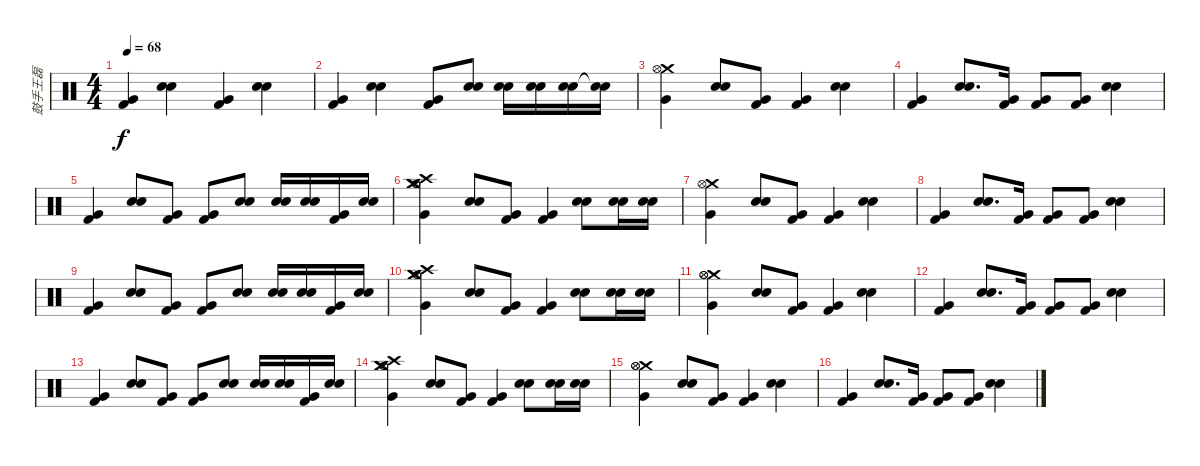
\track ("鼓手王磊" "鼓手王磊") {instrument percussion}
\staff {score}
\articulation defaults
\ts (4 4)
\tempo 68
\clef neutral
\ks c
("Very Low Tom (hit)" "Kick (hit) 2").4{dy f} ("Electric Snare (hit)" "Electric Snare (hit)").4 ("Very Low Tom (hit)" "Kick (hit) 2").4 ("Electric Snare (hit)" "Electric Snare (hit)").4 |
("Very Low Tom (hit)" "Kick (hit) 2").4 ("Electric Snare (hit)" "Electric Snare (hit)").4 ("Very Low Tom (hit)" "Kick (hit) 2").8 ("Electric Snare (hit)" "Electric Snare (hit)").8 ("Electric Snare (hit)" "Electric Snare (hit)").16 ("Electric Snare (hit)" "Electric Snare (hit)").16 ("Electric Snare (hit)" "Electric Snare (hit)").16 ("Snare (hit)"{t} "Snare (hit)"{t}).16 |
("Crash medium (hit)" "Very Low Tom (hit)" "Hi-Hat (open)").4 ("Electric Snare (hit)" "Electric Snare (hit)").8 ("Very Low Tom (hit)" "Kick (hit) 2").8 ("Very Low Tom (hit)" "Kick (hit) 2").4 ("Electric Snare (hit)" "Electric Snare (hit)").4 |
("Very Low Tom (hit)" "Kick (hit) 2").4 ("Electric Snare (hit)" "Electric Snare (hit)").8{d} ("Very Low Tom (hit)" "Kick (hit) 2").16 ("Very Low Tom (hit)" "Kick (hit) 2").8 ("Very Low Tom (hit)" "Kick (hit) 2").8 ("Electric Snare (hit)" "Electric Snare (hit)").4 |
("Very Low Tom (hit)" "Kick (hit) 2").4 ("Electric Snare (hit)" "Electric Snare (hit)").8 ("Very Low Tom (hit)" "Kick (hit) 2").8 ("Very Low Tom (hit)" "Kick (hit) 2").8 ("Electric Snare (hit)" "Electric Snare (hit)").8 ("Electric Snare (hit)" "Electric Snare (hit)").16 ("Electric Snare (hit)" "Electric Snare (hit)").16 ("Very Low Tom (hit)" "Kick (hit) 2").16 ("Electric Snare (hit)" "Electric Snare (hit)").16 |
("Crash medium (hit)" "Crash medium (hit)" "Very Low Tom (hit)" "Crash high (hit)" "Hi-Hat (open)" "Hi-Hat (open)").4 ("Electric Snare (hit)" "Electric Snare (hit)").8 ("Very Low Tom (hit)" "Kick (hit) 2").8 ("Very Low Tom (hit)" "Kick (hit) 2").4 ("Electric Snare (hit)" "Electric Snare (hit)").8 ("Electric Snare (hit)" "Electric Snare (hit)").16 ("Electric Snare (hit)" "Electric Snare (hit)").16 |
("Crash medium (hit)" "Very Low Tom (hit)" "Hi-Hat (open)").4 ("Electric Snare (hit)" "Electric Snare (hit)").8 ("Very Low Tom (hit)" "Kick (hit) 2").8 ("Very Low Tom (hit)" "Kick (hit) 2").4 ("Electric Snare (hit)" "Electric Snare (hit)").4 |
("Very Low Tom (hit)" "Kick (hit) 2").4 ("Electric Snare (hit)" "Electric Snare (hit)").8{d} ("Very Low Tom (hit)" "Kick (hit) 2").16 ("Very Low Tom (hit)" "Kick (hit) 2").8 ("Very Low Tom (hit)" "Kick (hit) 2").8 ("Electric Snare (hit)" "Electric Snare (hit)").4 |
("Very Low Tom (hit)" "Kick (hit) 2").4 ("Electric Snare (hit)" "Electric Snare (hit)").8 ("Very Low Tom (hit)" "Kick (hit) 2").8 ("Very Low Tom (hit)" "Kick (hit) 2").8 ("Electric Snare (hit)" "Electric Snare (hit)").8 ("Electric Snare (hit)" "Electric Snare (hit)").16 ("Electric Snare (hit)" "Electric Snare (hit)").16 ("Very Low Tom (hit)" "Kick (hit) 2").16 ("Electric Snare (hit)" "Electric Snare (hit)").16 |
("Crash medium (hit)" "Crash medium (hit)" "Very Low Tom (hit)" "Crash high (hit)" "Hi-Hat (open)" "Hi-Hat (open)").4 ("Electric Snare (hit)" "Electric Snare (hit)").8 ("Very Low Tom (hit)" "Kick (hit) 2").8 ("Very Low Tom (hit)" "Kick (hit) 2").4 ("Electric Snare (hit)" "Electric Snare (hit)").8 ("Electric Snare (hit)" "Electric Snare (hit)").16 ("Electric Snare (hit)" "Electric Snare (hit)").16 |
("Crash medium (hit)" "Very Low Tom (hit)" "Hi-Hat (open)" "Hi-Hat (open)").4 ("Electric Snare (hit)" "Electric Snare (hit)").8 ("Very Low Tom (hit)" "Kick (hit) 2").8 ("Very Low Tom (hit)" "Kick (hit) 2").4 ("Electric Snare (hit)" "Electric Snare (hit)").4 |
("Very Low Tom (hit)" "Kick (hit) 2").4 ("Electric Snare (hit)" "Electric Snare (hit)").8{d} ("Very Low Tom (hit)" "Kick (hit) 2").16 ("Very Low Tom (hit)" "Kick (hit) 2").8 ("Very Low Tom (hit)" "Kick (hit) 2").8 ("Electric Snare (hit)" "Electric Snare (hit)").4 |
("Very Low Tom (hit)" "Kick (hit) 2").4 ("Electric Snare (hit)" "Electric Snare (hit)").8 ("Very Low Tom (hit)" "Kick (hit) 2").8 ("Very Low Tom (hit)" "Kick (hit) 2").8 ("Electric Snare (hit)" "Electric Snare (hit)").8 ("Electric Snare (hit)" "Electric Snare (hit)").16 ("Electric Snare (hit)" "Electric Snare (hit)").16 ("Very Low Tom (hit)" "Kick (hit) 2").16 ("Electric Snare (hit)" "Electric Snare (hit)").16 |
("Crash medium (hit)" "Crash medium (hit)" "Very Low Tom (hit)" "Crash high (hit)" "Hi-Hat (open)" "Hi-Hat (open)").4 ("Electric Snare (hit)" "Electric Snare (hit)").8 ("Very Low Tom (hit)" "Kick (hit) 2").8 ("Very Low Tom (hit)" "Kick (hit) 2").4 ("Electric Snare (hit)" "Electric Snare (hit)").8 ("Electric Snare (hit)" "Electric Snare (hit)").16 ("Electric Snare (hit)" "Electric Snare (hit)").16 |
("Crash medium (hit)" "Very Low Tom (hit)" "Hi-Hat (open)" "Hi-Hat (open)").4 ("Electric Snare (hit)" "Electric Snare (hit)").8 ("Very Low Tom (hit)" "Kick (hit) 2").8 ("Very Low Tom (hit)" "Kick (hit) 2").4 ("Electric Snare (hit)" "Electric Snare (hit)").4 |
("Very Low Tom (hit)" "Kick (hit) 2").4 ("Electric Snare (hit)" "Electric Snare (hit)").8{d} ("Very Low Tom (hit)" "Kick (hit) 2").16 ("Very Low Tom (hit)" "Kick (hit) 2").8 ("Very Low Tom (hit)" "Kick (hit) 2").8 ("Electric Snare (hit)" "Electric Snare (hit)").4
